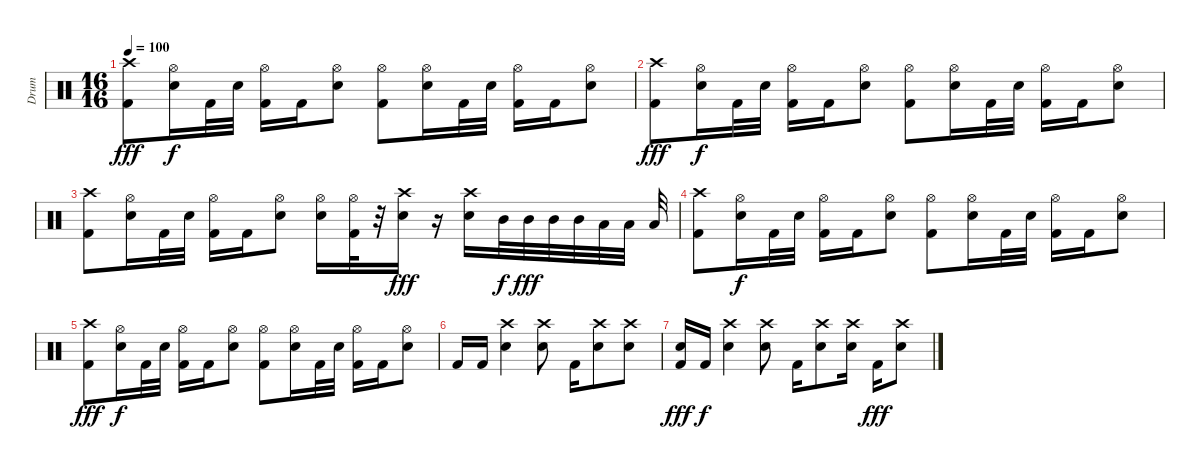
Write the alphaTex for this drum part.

\track ("Drum" "Drum") {instrument percussion}
\staff {score}
\articulation defaults
\ts (16 16)
\tempo 100
\clef neutral
\ks aminor
("Crash high (hit)" "Kick (hit) 2").8{dy fff} ("Hi-Hat (open)" "Snare (hit) 2").16{dy f} "Kick (hit) 2".32 "Snare (hit) 2".32 ("Hi-Hat (open)" "Kick (hit) 2").16 "Kick (hit) 2".16 ("Hi-Hat (open)" "Snare (hit) 2").8 ("Hi-Hat (open)" "Kick (hit) 2").8 ("Hi-Hat (open)" "Snare (hit) 2").16 "Kick (hit) 2".32 "Snare (hit) 2".32 ("Hi-Hat (open)" "Kick (hit) 2").16 "Kick (hit) 2".16 ("Hi-Hat (open)" "Snare (hit) 2").8 |
("Crash high (hit)" "Kick (hit) 2").8{dy fff} ("Hi-Hat (open)" "Snare (hit) 2").16{dy f} "Kick (hit) 2".32 "Snare (hit) 2".32 ("Hi-Hat (open)" "Kick (hit) 2").16 "Kick (hit) 2".16 ("Hi-Hat (open)" "Snare (hit) 2").8 ("Hi-Hat (open)" "Kick (hit) 2").8 ("Hi-Hat (open)" "Snare (hit) 2").16 "Kick (hit) 2".32 "Snare (hit) 2".32 ("Hi-Hat (open)" "Kick (hit) 2").16 "Kick (hit) 2".16 ("Hi-Hat (open)" "Snare (hit) 2").8 |
("Crash high (hit)" "Kick (hit) 2").8 ("Hi-Hat (open)" "Snare (hit) 2").16 "Kick (hit) 2".32 "Snare (hit) 2".32 ("Hi-Hat (open)" "Kick (hit) 2").16 "Kick (hit) 2".16 ("Hi-Hat (open)" "Snare (hit) 2").8 ("Hi-Hat (open)" "Snare (hit) 2").16 ("Hi-Hat (open)" "Kick (hit) 2").32 r.32 ("Crash high (hit)" "Snare (hit) 2").16{dy fff} r.16 ("Crash high (hit)" "Snare (hit) 2").16 "Mid Tom (hit)".32{dy f} "Mid Tom (hit)".32{dy fff} "Mid Tom (hit)".32 "Mid Tom (hit)".32 "Low Tom (hit)".32 "Low Tom (hit)".32 "Low Tom (hit)".32 |
("Crash high (hit)" "Kick (hit) 2").8 ("Hi-Hat (open)" "Snare (hit) 2").16{dy f} "Kick (hit) 2".32 "Snare (hit) 2".32 ("Hi-Hat (open)" "Kick (hit) 2").16 "Kick (hit) 2".16 ("Hi-Hat (open)" "Snare (hit) 2").8 ("Hi-Hat (open)" "Kick (hit) 2").8 ("Hi-Hat (open)" "Snare (hit) 2").16 "Kick (hit) 2".32 "Snare (hit) 2".32 ("Hi-Hat (open)" "Kick (hit) 2").16 "Kick (hit) 2".16 ("Hi-Hat (open)" "Snare (hit) 2").8 |
("Crash high (hit)" "Kick (hit) 2").8{dy fff} ("Hi-Hat (open)" "Snare (hit) 2").16{dy f} "Kick (hit) 2".32 "Snare (hit) 2".32 ("Hi-Hat (open)" "Kick (hit) 2").16 "Kick (hit) 2".16 ("Hi-Hat (open)" "Snare (hit) 2").8 ("Hi-Hat (open)" "Kick (hit) 2").8 ("Hi-Hat (open)" "Snare (hit) 2").16 "Kick (hit) 2".32 "Snare (hit) 2".32 ("Hi-Hat (open)" "Kick (hit) 2").16 "Kick (hit) 2".16 ("Hi-Hat (open)" "Snare (hit) 2").8 |
"Kick (hit) 2".16 "Kick (hit) 2".16 ("Crash high (hit)" "Snare (hit) 2").4 ("Crash high (hit)" "Snare (hit) 2").8 "Kick (hit) 2".16 ("Crash high (hit)" "Snare (hit) 2").8 ("Crash high (hit)" "Snare (hit) 2").8 |
("Snare (hit) 2" "Kick (hit) 2").16{dy fff} "Kick (hit) 2".16{dy f} ("Crash high (hit)" "Snare (hit) 2").4 ("Crash high (hit)" "Snare (hit) 2").8 "Kick (hit) 2".16 ("Crash high (hit)" "Snare (hit) 2").8 ("Crash high (hit)" "Snare (hit) 2").16 "Kick (hit) 2".16{dy fff} ("Crash high (hit)" "Snare (hit) 2").8
